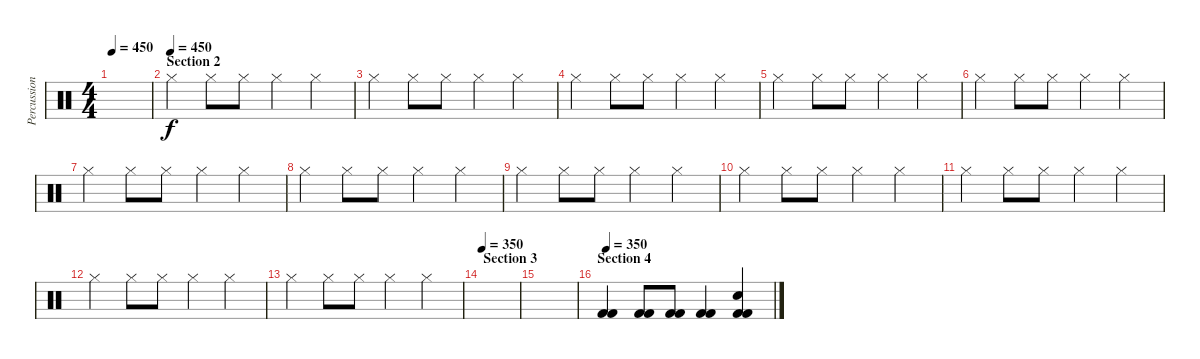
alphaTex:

\track ("Percussions" "Percussion") {instrument percussion}
\staff {score}
\articulation defaults
\ts (4 4)
\tempo 450
\clef neutral
\ks c
|
\section ("" "Section 2")
\tempo (450)
"Hi-Hat (closed)".4 "Hi-Hat (closed)".8 "Hi-Hat (closed)".8 "Hi-Hat (closed)".4 "Hi-Hat (closed)".4 |
"Hi-Hat (closed)".4 "Hi-Hat (closed)".8 "Hi-Hat (closed)".8 "Hi-Hat (closed)".4 "Hi-Hat (closed)".4 |
"Hi-Hat (closed)".4 "Hi-Hat (closed)".8 "Hi-Hat (closed)".8 "Hi-Hat (closed)".4 "Hi-Hat (closed)".4 |
"Hi-Hat (closed)".4 "Hi-Hat (closed)".8 "Hi-Hat (closed)".8 "Hi-Hat (closed)".4 "Hi-Hat (closed)".4 |
"Hi-Hat (closed)".4 "Hi-Hat (closed)".8 "Hi-Hat (closed)".8 "Hi-Hat (closed)".4 "Hi-Hat (closed)".4 |
"Hi-Hat (closed)".4 "Hi-Hat (closed)".8 "Hi-Hat (closed)".8 "Hi-Hat (closed)".4 "Hi-Hat (closed)".4 |
"Hi-Hat (closed)".4 "Hi-Hat (closed)".8 "Hi-Hat (closed)".8 "Hi-Hat (closed)".4 "Hi-Hat (closed)".4 |
"Hi-Hat (closed)".4 "Hi-Hat (closed)".8 "Hi-Hat (closed)".8 "Hi-Hat (closed)".4 "Hi-Hat (closed)".4 |
"Hi-Hat (closed)".4 "Hi-Hat (closed)".8 "Hi-Hat (closed)".8 "Hi-Hat (closed)".4 "Hi-Hat (closed)".4 |
"Hi-Hat (closed)".4 "Hi-Hat (closed)".8 "Hi-Hat (closed)".8 "Hi-Hat (closed)".4 "Hi-Hat (closed)".4 |
"Hi-Hat (closed)".4 "Hi-Hat (closed)".8 "Hi-Hat (closed)".8 "Hi-Hat (closed)".4 "Hi-Hat (closed)".4 |
"Hi-Hat (closed)".4 "Hi-Hat (closed)".8 "Hi-Hat (closed)".8 "Hi-Hat (closed)".4 "Hi-Hat (closed)".4 |
\section ("" "Section 3")
\tempo 350
|
|
\section ("" "Section 4")
\tempo 350
("Kick (hit) 2" "Kick (hit) 2").4 ("Kick (hit) 2" "Kick (hit) 2").8 ("Kick (hit) 2" "Kick (hit) 2").8 ("Kick (hit) 2" "Kick (hit) 2").4 ("Kick (hit) 2" "Kick (hit) 2" "Snare (hit) 2").4
